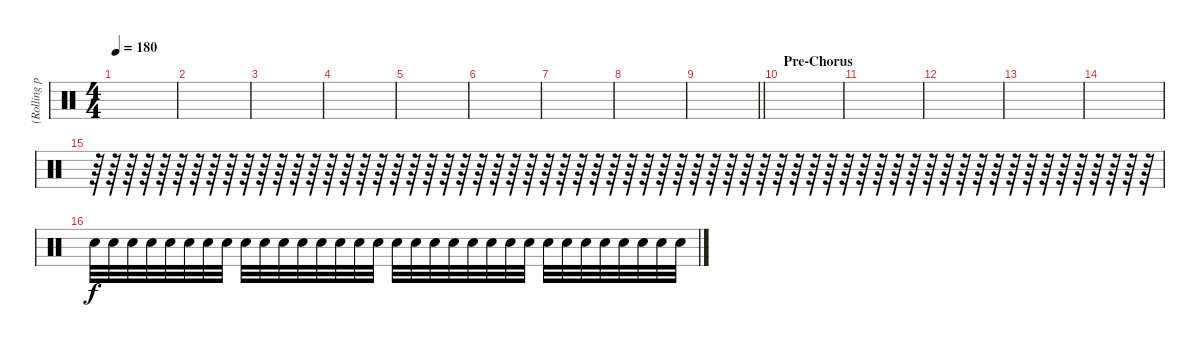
\track ("(Rolling part of Pre-Chorus)" "(Rolling p") {instrument percussion}
\staff {score}
\articulation defaults
\ts (4 4)
\tempo 180
\clef neutral
\ks c
|
|
|
|
|
|
|
|
\barLineRight lightlight
|
\section ("" "Pre-Chorus")
|
|
|
|
|
r.64 r.64 r.64 r.64 r.64 r.64 r.64 r.64 r.64 r.64 r.64 r.64 r.64 r.64 r.64 r.64 r.64 r.64 r.64 r.64 r.64 r.64 r.64 r.64 r.64 r.64 r.64 r.64 r.64 r.64 r.64 r.64 r.64 r.64 r.64 r.64 r.64 r.64 r.64 r.64 r.64 r.64 r.64 r.64 r.64 r.64 r.64 r.64 r.64 r.64 r.64 r.64 r.64 r.64 r.64 r.64 r.64 r.64 r.64 r.64 r.64 r.64 r.64 r.64{volume 1} |
"Snare (hit) 2".32{volume 16} "Snare (hit) 2".32 "Snare (hit) 2".32 "Snare (hit) 2".32 "Snare (hit) 2".32 "Snare (hit) 2".32 "Snare (hit) 2".32 "Snare (hit) 2".32 "Snare (hit) 2".32 "Snare (hit) 2".32 "Snare (hit) 2".32 "Snare (hit) 2".32 "Snare (hit) 2".32 "Snare (hit) 2".32 "Snare (hit) 2".32 "Snare (hit) 2".32 "Snare (hit) 2".32 "Snare (hit) 2".32 "Snare (hit) 2".32 "Snare (hit) 2".32 "Snare (hit) 2".32 "Snare (hit) 2".32 "Snare (hit) 2".32 "Snare (hit) 2".32 "Snare (hit) 2".32 "Snare (hit) 2".32 "Snare (hit) 2".32 "Snare (hit) 2".32 "Snare (hit) 2".32 "Snare (hit) 2".32 "Snare (hit) 2".32 "Snare (hit) 2".32
